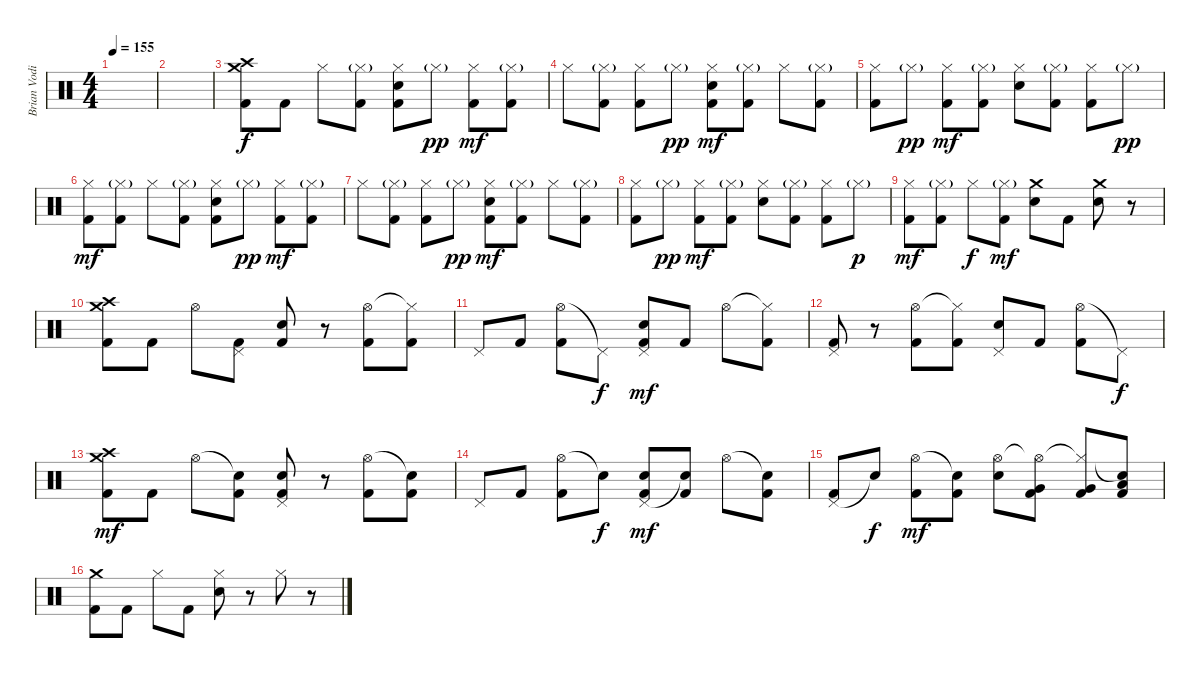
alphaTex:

\track ("Brian Vodinh" "Brian Vodi") {instrument percussion}
\staff {score}
\articulation defaults
\ts (4 4)
\tempo 155
\clef neutral
\ks c
|
|
("Crash high (hit)" "Crash medium (hit)" "Kick (hit) 2").8 "Kick (hit) 2".8 "Hi-Hat (closed)".8 ("Hi-Hat (closed)"{g} "Kick (hit) 2").8 ("Hi-Hat (closed)" "Electric Snare (hit)" "Kick (hit) 2").8 "Hi-Hat (closed)"{g}.8{dy pp} ("Hi-Hat (closed)" "Kick (hit) 2").8{dy mf} ("Hi-Hat (closed)"{g} "Kick (hit) 2").8 |
"Hi-Hat (closed)".8 ("Hi-Hat (closed)"{g} "Kick (hit) 2").8 ("Hi-Hat (closed)" "Kick (hit) 2").8 "Hi-Hat (closed)"{g}.8{dy pp} ("Hi-Hat (closed)" "Electric Snare (hit)" "Kick (hit) 2").8{dy mf} ("Hi-Hat (closed)"{g} "Kick (hit) 2").8 "Hi-Hat (closed)".8 ("Hi-Hat (closed)"{g} "Kick (hit) 2").8 |
("Hi-Hat (closed)" "Kick (hit) 2").8 "Hi-Hat (closed)"{g}.8{dy pp} ("Hi-Hat (closed)" "Kick (hit) 2").8{dy mf} ("Hi-Hat (closed)"{g} "Kick (hit) 2").8 ("Hi-Hat (closed)" "Electric Snare (hit)").8 ("Hi-Hat (closed)"{g} "Kick (hit) 2").8 ("Hi-Hat (closed)" "Kick (hit) 2").8 "Hi-Hat (closed)"{g}.8{dy pp} |
("Hi-Hat (closed)" "Kick (hit) 2").8{dy mf} ("Hi-Hat (closed)"{g} "Kick (hit) 2").8 "Hi-Hat (closed)".8 ("Hi-Hat (closed)"{g} "Kick (hit) 2").8 ("Hi-Hat (closed)" "Electric Snare (hit)" "Kick (hit) 2").8 "Hi-Hat (closed)"{g}.8{dy pp} ("Hi-Hat (closed)" "Kick (hit) 2").8{dy mf} ("Hi-Hat (closed)"{g} "Kick (hit) 2").8 |
"Hi-Hat (closed)".8 ("Hi-Hat (closed)"{g} "Kick (hit) 2").8 ("Hi-Hat (closed)" "Kick (hit) 2").8 "Hi-Hat (closed)"{g}.8{dy pp} ("Hi-Hat (closed)" "Electric Snare (hit)" "Kick (hit) 2").8{dy mf} ("Hi-Hat (closed)"{g} "Kick (hit) 2").8 "Hi-Hat (closed)".8 ("Hi-Hat (closed)"{g} "Kick (hit) 2").8 |
("Hi-Hat (closed)" "Kick (hit) 2").8 "Hi-Hat (closed)"{g}.8{dy pp} ("Hi-Hat (closed)" "Kick (hit) 2").8{dy mf} ("Hi-Hat (closed)"{g} "Kick (hit) 2").8 ("Hi-Hat (closed)" "Electric Snare (hit)").8 ("Hi-Hat (closed)"{g} "Kick (hit) 2").8 ("Hi-Hat (closed)" "Kick (hit) 2").8 "Hi-Hat (closed)"{g}.8{dy p} |
("Hi-Hat (closed)" "Kick (hit) 2").8{dy mf} ("Hi-Hat (closed)"{g} "Kick (hit) 2").8 "Hi-Hat (closed)".8{dy f} ("Hi-Hat (closed)"{g} "Kick (hit) 2").8{dy mf} ("Crash medium (hit)" "Electric Snare (hit)").8 "Kick (hit) 2".8 ("Crash medium (hit)" "Electric Snare (hit)").8 r.8 |
("Crash high (hit)" "Crash medium (hit)" "Kick (hit) 2").8 "Kick (hit) 2".8 "Hi-Hat (open)".8 ("Pedal Hi-Hat (hit)" "Kick (hit) 2").8 ("Electric Snare (hit)" "Kick (hit) 2").8 r.8 ("Hi-Hat (open)" "Kick (hit) 2").8 ("Hi-Hat (closed)"{t} "Kick (hit) 2").8 |
"Pedal Hi-Hat (hit)".8 "Kick (hit) 2".8 ("Hi-Hat (open)" "Kick (hit) 2").8 "Pedal Hi-Hat (hit)"{t}.8{dy f} ("Pedal Hi-Hat (hit)" "Electric Snare (hit)" "Kick (hit) 2").8{dy mf} "Kick (hit) 2".8 "Hi-Hat (open)".8 ("Hi-Hat (closed)"{t} "Kick (hit) 2").8 |
("Pedal Hi-Hat (hit)" "Kick (hit) 2").8 r.8 ("Hi-Hat (open)" "Kick (hit) 2").8 ("Hi-Hat (closed)"{t} "Kick (hit) 2").8 ("Pedal Hi-Hat (hit)" "Electric Snare (hit)").8 "Kick (hit) 2".8 ("Hi-Hat (open)" "Kick (hit) 2").8 "Pedal Hi-Hat (hit)"{t}.8{dy f} |
("Crash medium (hit)" "Crash high (hit)" "Kick (hit) 2").8{dy mf} "Kick (hit) 2".8 "Hi-Hat (open)".8 ("Snare (hit)"{t} "Kick (hit) 2").8 ("Pedal Hi-Hat (hit)" "Electric Snare (hit)" "Kick (hit) 2").8 r.8 ("Hi-Hat (open)" "Kick (hit) 2").8 ("Snare (hit)"{t} "Kick (hit) 2").8 |
"Pedal Hi-Hat (hit)".8 "Kick (hit) 2".8 ("Hi-Hat (open)" "Kick (hit) 2").8 "Snare (hit)"{t}.8{dy f} ("Pedal Hi-Hat (hit)" "Electric Snare (hit)" "Kick (hit) 2").8{dy mf} ("Snare (hit)"{t} "Kick (hit) 2").8 "Hi-Hat (open)".8 ("Snare (hit)"{t} "Kick (hit) 2").8 |
("Pedal Hi-Hat (hit)" "Kick (hit) 2").8 "Snare (hit)"{t}.8{dy f} ("Hi-Hat (open)" "Kick (hit) 2").8{dy mf} ("Snare (hit)"{t} "Kick (hit) 2").8 ("Hi-Hat (open)" "Electric Snare (hit)").8 ("Hi-Hat (open)"{t} "Very Low Tom (hit)" "Kick (hit) 2").8 ("Hi-Hat (closed)"{t} "Very Low Tom (hit)" "Kick (hit) 2").8 ("Snare (hit)"{t} "Low Floor Tom (hit)" "Kick (hit) 2").8 |
("Crash medium (hit)" "Kick (hit) 2").8 "Kick (hit) 2".8 "Hi-Hat (closed)".8 "Kick (hit) 2".8 ("Hi-Hat (closed)" "Electric Snare (hit)").8 r.8 "Hi-Hat (closed)".8 r.8
